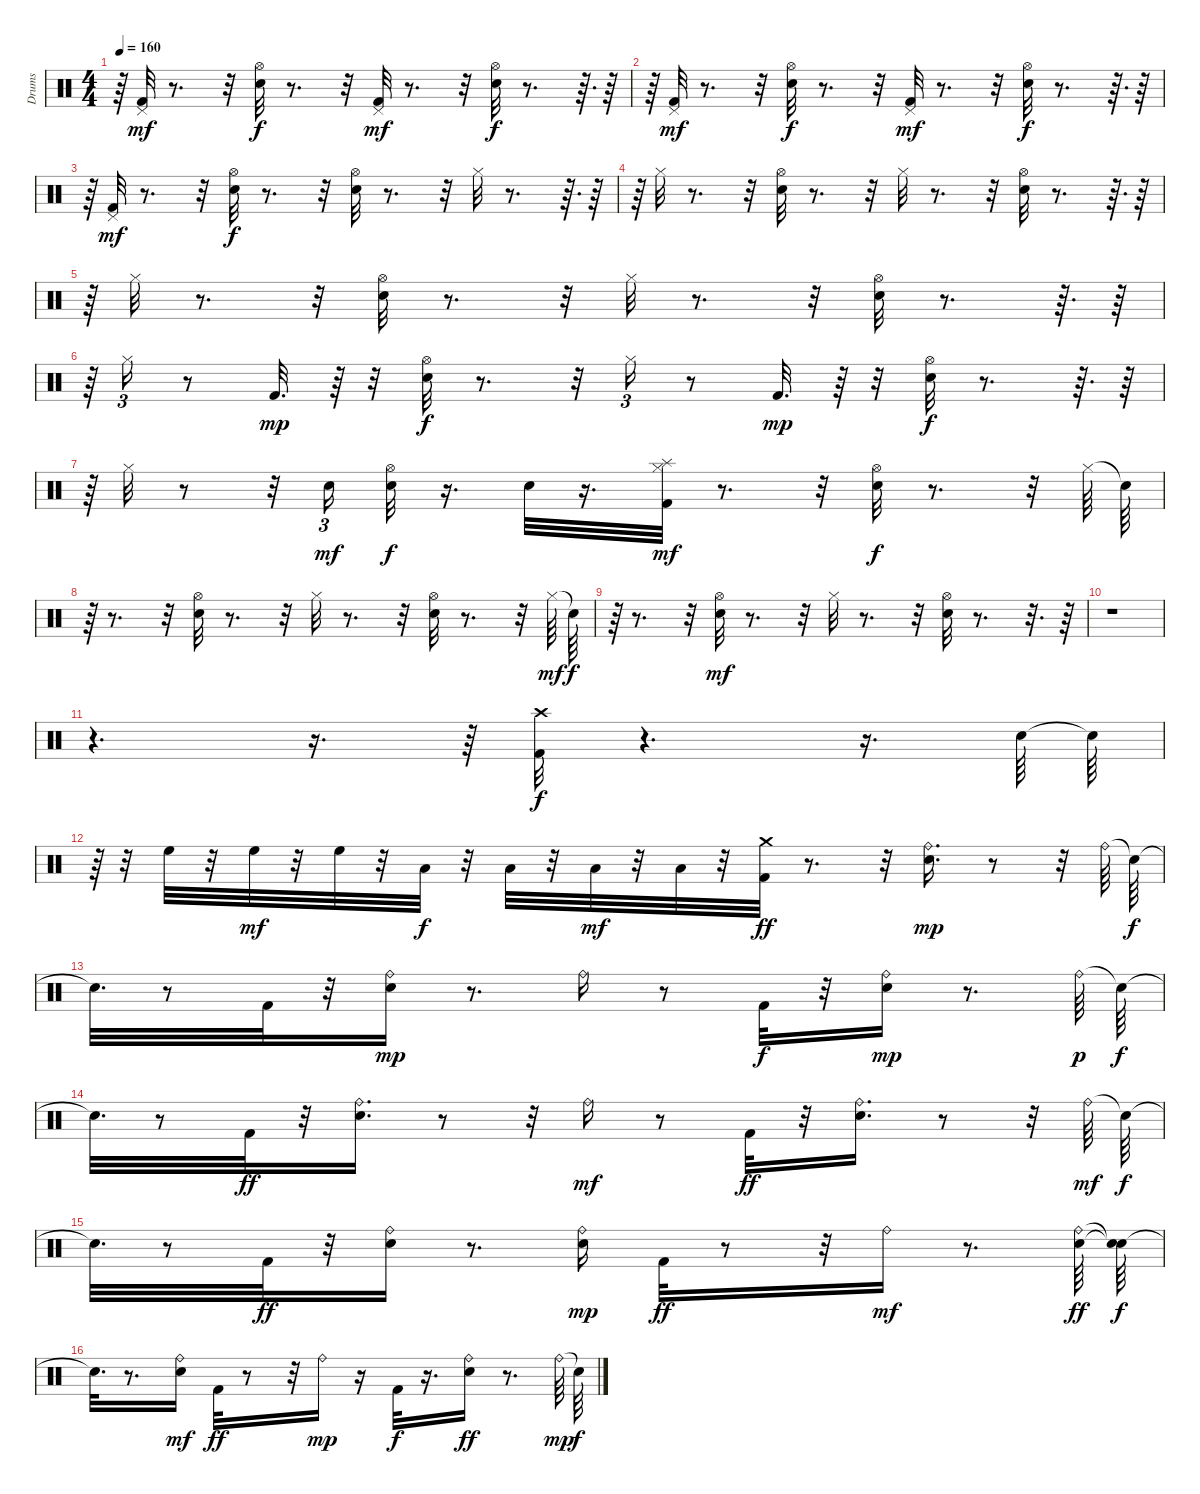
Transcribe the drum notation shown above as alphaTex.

\track ("Drums" "Drums") {instrument percussion}
\staff {score}
\articulation defaults
\ts (4 4)
\tempo 160
\clef neutral
\ks c
r.64{dy f} ("Pedal Hi-Hat (hit)" "Kick (hit) 2").32{dy mf} r.8{d} r.32 ("Hi-Hat (open)" "Snare (hit) 2").32{dy f} r.8{d} r.32 ("Pedal Hi-Hat (hit)" "Kick (hit) 2").32{dy mf} r.8{d} r.32 ("Hi-Hat (open)" "Snare (hit) 2").32{dy f} r.8{d} r.64{d} r.64 |
r.64 ("Pedal Hi-Hat (hit)" "Kick (hit) 2").32{dy mf} r.8{d} r.32 ("Hi-Hat (open)" "Snare (hit) 2").32{dy f} r.8{d} r.32 ("Pedal Hi-Hat (hit)" "Kick (hit) 2").32{dy mf} r.8{d} r.32 ("Hi-Hat (open)" "Snare (hit) 2").32{dy f} r.8{d} r.64{d} r.64 |
r.64 ("Pedal Hi-Hat (hit)" "Kick (hit) 2").32{dy mf} r.8{d} r.32 ("Hi-Hat (open)" "Snare (hit) 2").32{dy f} r.8{d} r.32 ("Hi-Hat (open)" "Snare (hit) 2").32 r.8{d} r.32 "Hi-Hat (closed)".32 r.8{d} r.64{d} r.64 |
r.64 "Hi-Hat (closed)".32 r.8{d} r.32 ("Hi-Hat (open)" "Snare (hit) 2").32 r.8{d} r.32 "Hi-Hat (closed)".32 r.8{d} r.32 ("Hi-Hat (open)" "Snare (hit) 2").32 r.8{d} r.64{d} r.64 |
r.64 "Hi-Hat (closed)".32 r.8{d} r.32 ("Hi-Hat (open)" "Snare (hit) 2").32 r.8{d} r.32 "Hi-Hat (closed)".32 r.8{d} r.32 ("Hi-Hat (open)" "Snare (hit) 2").32 r.8{d} r.64{d} r.64 |
r.64 "Hi-Hat (closed)".16{tu (3 2)} r.8 "Kick (hit) 2".32{d dy mp} r.64 r.32 ("Hi-Hat (open)" "Snare (hit) 2").32{dy f} r.8{d} r.32 "Hi-Hat (closed)".16{tu (3 2)} r.8 "Kick (hit) 2".32{d dy mp} r.64 r.32 ("Hi-Hat (open)" "Snare (hit) 2").32{dy f} r.8{d} r.64{d} r.64 |
r.64 "Hi-Hat (closed)".32 r.8 r.32 "Snare (hit) 2".16{tu (3 2) dy mf} ("Snare (hit) 2" "Hi-Hat (open)").32{dy f} r.16{d} "Snare (hit) 2".32 r.16{d} ("Splash (hit)" "Kick (hit) 2" "Hi-Hat (closed)").32{dy mf} r.8{d} r.32 ("Snare (hit) 2" "Hi-Hat (open)").32{dy f} r.8{d} r.32 "Hi-Hat (closed)".64 "Snare (hit)"{t}.64 |
r.64 r.8{d} r.32 ("Snare (hit) 2" "Hi-Hat (open)").32 r.8{d} r.32 "Hi-Hat (closed)".32 r.8{d} r.32 ("Snare (hit) 2" "Hi-Hat (open)").32 r.8{d} r.32 "Hi-Hat (closed)".64{dy mf} "Snare (hit)"{t}.64{dy f} |
r.64 r.8{d} r.32 ("Hi-Hat (open)" "Snare (hit) 2").32{dy mf} r.8{d} r.32 "Hi-Hat (closed)".32 r.8{d} r.32 ("Hi-Hat (open)" "Snare (hit) 2").32 r.8{d} r.32{d} r.64 |
r.1 |
r.4{d} r.16{d} r.64 ("Kick (hit) 2" "Crash high (hit)").32{dy f} r.4{d} r.16{d} "Snare (hit) 2".64 "Snare (hit)"{t}.64 |
r.64 r.32 "High Floor Tom (hit)".32 r.32 "High Floor Tom (hit)".32{dy mf} r.32 "High Floor Tom (hit)".32 r.32 "Low Tom (hit)".32{dy f} r.32 "Low Floor Tom (hit)".32 r.32 "Low Floor Tom (hit)".32{dy mf} r.32 "Low Floor Tom (hit)".32 r.32 ("Crash medium (hit)" "Kick (hit) 2").32{dy ff} r.8{d} r.32 ("Snare (hit) 2" "Ride (bell)").16{d dy mp} r.8 r.32 "Ride (bell)".64 "Snare (hit)"{t}.64{dy f} |
"Snare (hit)"{t}.32{d} r.8 "Kick (hit) 2".32 r.32 ("Snare (hit) 2" "Ride (bell)").16{dy mp} r.8{d} "Ride (bell)".16 r.8 "Kick (hit) 2".32{dy f} r.32 ("Ride (bell)" "Snare (hit) 2").16{dy mp} r.8{d} "Ride (bell)".64{dy p} "Snare (hit)"{t}.64{dy f} |
"Snare (hit)"{t}.32{d} r.8 "Kick (hit) 2".32{dy ff} r.32 ("Ride (bell)" "Snare (hit) 2").16{d} r.8 r.32 "Ride (bell)".16{dy mf} r.8 "Kick (hit) 2".32{dy ff} r.32 ("Ride (bell)" "Snare (hit) 2").16{d} r.8 r.32 "Ride (bell)".64{dy mf} "Snare (hit)"{t}.64{dy f} |
"Snare (hit)"{t}.32{d} r.8 "Kick (hit) 2".32{dy ff} r.32 ("Snare (hit) 2" "Ride (bell)").16 r.8{d} ("Snare (hit) 2" "Ride (bell)").16{dy mp} "Kick (hit) 2".32{dy ff} r.8 r.32 "Ride (bell)".16{dy mf} r.8{d} ("Ride (bell)" "Snare (hit) 2").64{dy ff} ("Snare (hit)"{t} "Snare (hit)"{t}).64{dy f} |
"Snare (hit)"{t}.32{d} r.8{d} ("Snare (hit) 2" "Ride (bell)").16{dy mf} "Kick (hit) 2".32{dy ff} r.8 r.32 "Ride (bell)".16{dy mp} r.16 "Kick (hit) 2".32{dy f} r.16{d} ("Ride (bell)" "Snare (hit) 2").16{dy ff} r.8{d} "Ride (bell)".64{dy mp} "Snare (hit)"{t}.64{dy f}
